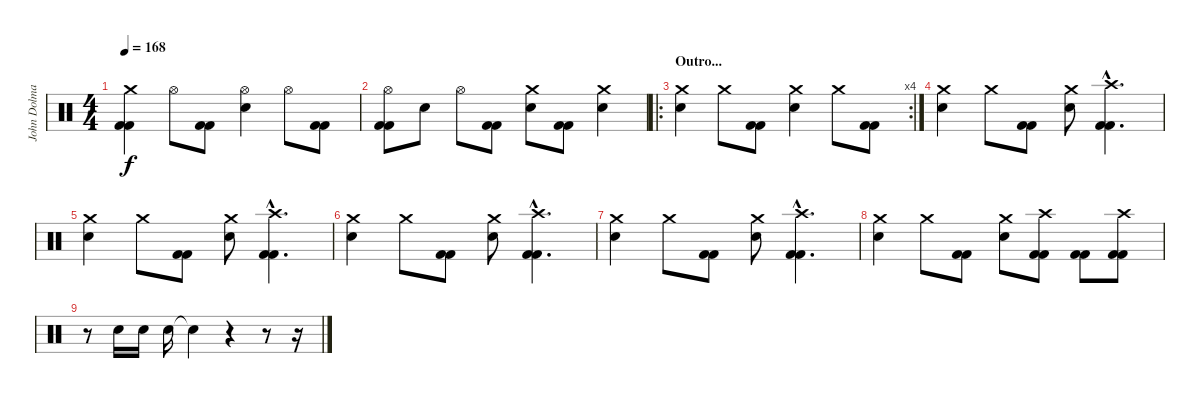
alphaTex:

\track ("John Dolmayan" "John Dolma") {instrument percussion}
\staff {score}
\articulation defaults
\ts (4 4)
\tempo 168
\clef neutral
\ks c
("Crash medium (hit)" "Kick (hit) 2" "Kick (hit) 2").4{dy f} "Hi-Hat (open)".8 ("Kick (hit) 2" "Kick (hit) 2").8 ("Hi-Hat (open)" "Electric Snare (hit)").4 "Hi-Hat (open)".8 ("Kick (hit) 2" "Kick (hit) 2").8 |
("Hi-Hat (open)" "Kick (hit) 2" "Kick (hit) 2").8 "Electric Snare (hit)".8 "Hi-Hat (open)".8 ("Kick (hit) 2" "Kick (hit) 2").8 ("Crash medium (hit)" "Electric Snare (hit)").8 ("Kick (hit) 2" "Kick (hit) 2").8 ("Crash medium (hit)" "Electric Snare (hit)").4 |
\ro
\rc 4
\section ("" "Outro...")
("Crash medium (hit)" "Electric Snare (hit)").4 "Crash medium (hit)".8 ("Kick (hit) 2" "Kick (hit) 2").8 ("Crash medium (hit)" "Electric Snare (hit)").4 "Crash medium (hit)".8 ("Kick (hit) 2" "Kick (hit) 2").8 |
("Crash medium (hit)" "Electric Snare (hit)").4 "Crash medium (hit)".8 ("Kick (hit) 2" "Kick (hit) 2").8 ("Crash medium (hit)" "Electric Snare (hit)").8 ("Crash high (hit)"{hac} "Kick (hit) 2"{hac} "Kick (hit) 2"{hac}).4{d} |
("Crash medium (hit)" "Electric Snare (hit)").4 "Crash medium (hit)".8 ("Kick (hit) 2" "Kick (hit) 2").8 ("Crash medium (hit)" "Electric Snare (hit)").8 ("Crash high (hit)"{hac} "Kick (hit) 2"{hac} "Kick (hit) 2"{hac}).4{d} |
("Crash medium (hit)" "Electric Snare (hit)").4 "Crash medium (hit)".8 ("Kick (hit) 2" "Kick (hit) 2").8 ("Crash medium (hit)" "Electric Snare (hit)").8 ("Crash high (hit)"{hac} "Kick (hit) 2"{hac} "Kick (hit) 2"{hac}).4{d} |
("Crash medium (hit)" "Electric Snare (hit)").4 "Crash medium (hit)".8 ("Kick (hit) 2" "Kick (hit) 2").8 ("Crash medium (hit)" "Electric Snare (hit)").8 ("Crash high (hit)"{hac} "Kick (hit) 2"{hac} "Kick (hit) 2"{hac}).4{d} |
("Crash medium (hit)" "Electric Snare (hit)").4 "Crash medium (hit)".8 ("Kick (hit) 2" "Kick (hit) 2").8 ("Crash medium (hit)" "Electric Snare (hit)").8 ("Crash high (hit)" "Kick (hit) 2" "Kick (hit) 2").8 ("Kick (hit) 2" "Kick (hit) 2").8 ("Crash high (hit)" "Kick (hit) 2" "Kick (hit) 2").8 |
r.8 "Electric Snare (hit)".16 "Electric Snare (hit)".16 "Electric Snare (hit)".16 "Snare (hit)"{t}.4 r.4 r.8 r.16
